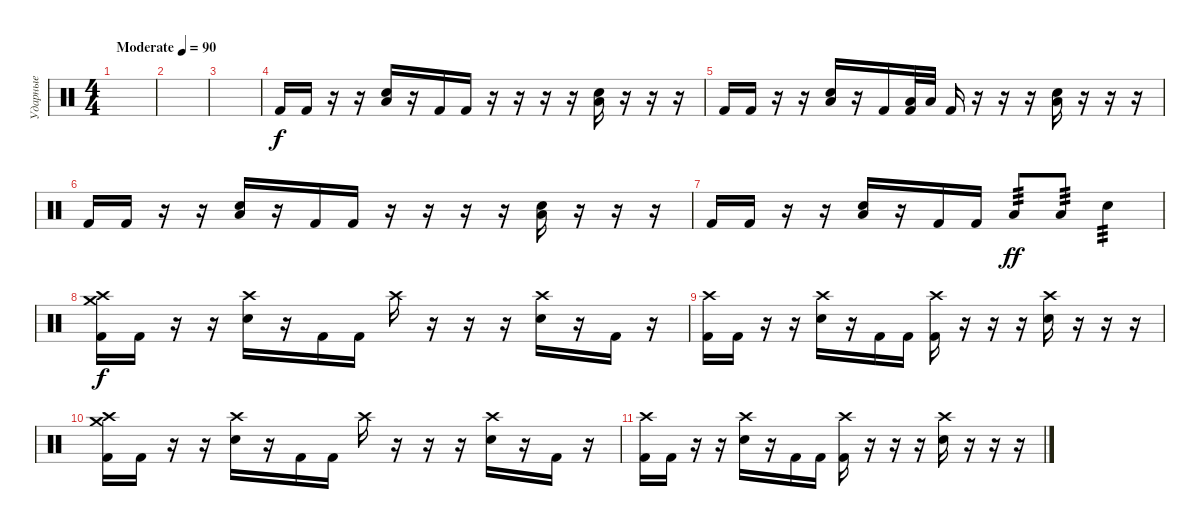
\track ("Ударные" "Ударные") {instrument percussion}
\staff {score}
\articulation defaults
\ts (4 4)
\tempo (90 "Moderate")
\clef neutral
\ks c
|
|
|
"Kick (hit) 2".16 "Kick (hit) 2".16 r.16 r.16 ("Low Floor Tom (hit)" "Electric Snare (hit)").16 r.16 "Kick (hit) 2".16 "Kick (hit) 2".16 r.16 r.16 r.16 r.16 ("Low Floor Tom (hit)" "Electric Snare (hit)").16 r.16 r.16 r.16 |
"Kick (hit) 2".16 "Kick (hit) 2".16 r.16 r.16 ("Low Floor Tom (hit)" "Electric Snare (hit)").16 r.16 "Kick (hit) 2".16 ("Low Tom (hit)" "Kick (hit) 2").32 "Low Floor Tom (hit)".32 "Kick (hit) 2".16 r.16 r.16 r.16 ("Low Floor Tom (hit)" "Electric Snare (hit)").16 r.16 r.16 r.16 |
"Kick (hit) 2".16 "Kick (hit) 2".16 r.16 r.16 ("Low Floor Tom (hit)" "Electric Snare (hit)").16 r.16 "Kick (hit) 2".16 "Kick (hit) 2".16 r.16 r.16 r.16 r.16 ("Low Floor Tom (hit)" "Electric Snare (hit)").16 r.16 r.16 r.16 |
"Kick (hit) 2".16 "Kick (hit) 2".16 r.16 r.16 ("Low Floor Tom (hit)" "Electric Snare (hit)").16 r.16 "Kick (hit) 2".16 "Kick (hit) 2".16 "Low Tom (hit)".8{tp 3 dy ff} "Low Floor Tom (hit)".8{tp 3} "Electric Snare (hit)".4{tp 3} |
("Crash medium (hit)" "Crash high (hit)" "Kick (hit) 2").16{dy f} "Kick (hit) 2".16 r.16 r.16 ("Crash high (hit)" "Electric Snare (hit)").16 r.16 "Kick (hit) 2".16 "Kick (hit) 2".16 "Crash high (hit)".16 r.16 r.16 r.16 ("Crash high (hit)" "Electric Snare (hit)").16 r.16 "Kick (hit) 2".16 r.16 |
("Crash high (hit)" "Kick (hit) 2").16 "Kick (hit) 2".16 r.16 r.16 ("Crash high (hit)" "Electric Snare (hit)").16 r.16 "Kick (hit) 2".16 "Kick (hit) 2".16 ("Crash high (hit)" "Kick (hit) 2").16 r.16 r.16 r.16 ("Crash high (hit)" "Electric Snare (hit)").16 r.16 r.16 r.16 |
("Crash medium (hit)" "Crash high (hit)" "Kick (hit) 2").16 "Kick (hit) 2".16 r.16 r.16 ("Crash high (hit)" "Electric Snare (hit)").16 r.16 "Kick (hit) 2".16 "Kick (hit) 2".16 "Crash high (hit)".16 r.16 r.16 r.16 ("Crash high (hit)" "Electric Snare (hit)").16 r.16 "Kick (hit) 2".16 r.16 |
("Crash high (hit)" "Kick (hit) 2").16 "Kick (hit) 2".16 r.16 r.16 ("Crash high (hit)" "Electric Snare (hit)").16 r.16 "Kick (hit) 2".16 "Kick (hit) 2".16 ("Crash high (hit)" "Kick (hit) 2").16 r.16 r.16 r.16 ("Crash high (hit)" "Electric Snare (hit)").16 r.16 r.16 r.16
